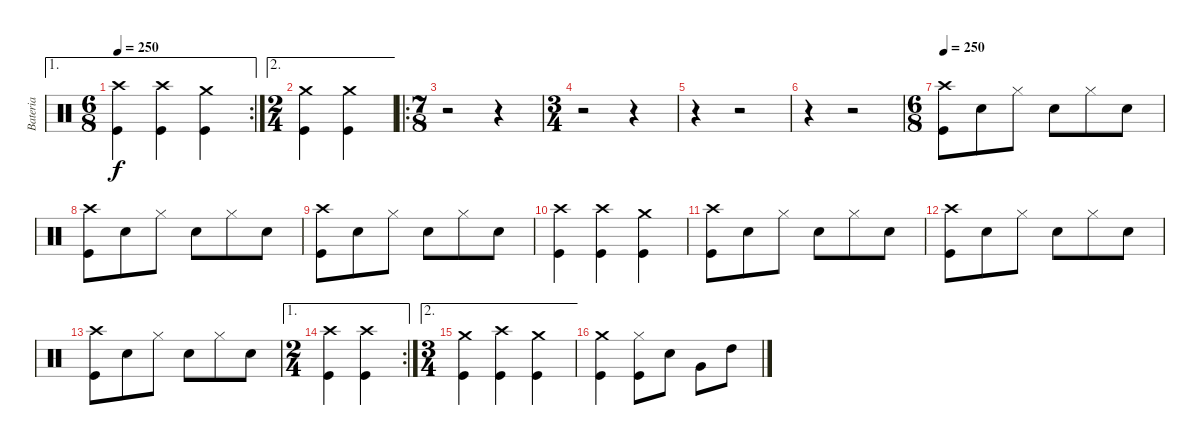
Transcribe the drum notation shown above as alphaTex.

\track ("Bateria" "Bateria") {instrument percussion}
\staff {score}
\articulation defaults
\ae 1
\rc 2
\ts (6 8)
\tempo 250
\clef neutral
\ks c
("Crash high (hit)" "Kick (hit)").4{dy f} ("Crash high (hit)" "Kick (hit)").4 ("Crash medium (hit)" "Kick (hit)").4 |
\ae 2
\ts (2 4)
("Crash medium (hit)" "Kick (hit)").4 ("Crash medium (hit)" "Kick (hit)").4 |
\ro
\ts (7 8)
r.2 r.4 |
\ts (3 4)
r.2 r.4 |
r.4 r.2 |
r.4 r.2 |
\ts (6 8)
\tempo 250
("Crash high (hit)" "Kick (hit)").8 "Snare (hit) 2".8 "Hi-Hat (closed)".8 "Snare (hit) 2".8 "Hi-Hat (closed)".8 "Snare (hit) 2".8 |
("Crash high (hit)" "Kick (hit)").8 "Snare (hit) 2".8 "Hi-Hat (closed)".8 "Snare (hit) 2".8 "Hi-Hat (closed)".8 "Snare (hit) 2".8 |
("Crash high (hit)" "Kick (hit)").8 "Snare (hit) 2".8 "Hi-Hat (closed)".8 "Snare (hit) 2".8 "Hi-Hat (closed)".8 "Snare (hit) 2".8 |
("Crash high (hit)" "Kick (hit)").4 ("Crash high (hit)" "Kick (hit)").4 ("Crash medium (hit)" "Kick (hit)").4 |
("Crash high (hit)" "Kick (hit)").8 "Snare (hit) 2".8 "Hi-Hat (closed)".8 "Snare (hit) 2".8 "Hi-Hat (closed)".8 "Snare (hit) 2".8 |
("Crash high (hit)" "Kick (hit)").8 "Snare (hit) 2".8 "Hi-Hat (closed)".8 "Snare (hit) 2".8 "Hi-Hat (closed)".8 "Snare (hit) 2".8 |
("Crash high (hit)" "Kick (hit)").8 "Snare (hit) 2".8 "Hi-Hat (closed)".8 "Snare (hit) 2".8 "Hi-Hat (closed)".8 "Snare (hit) 2".8 |
\ae 1
\rc 2
\ts (2 4)
("Crash high (hit)" "Kick (hit)").4 ("Crash high (hit)" "Kick (hit)").4 |
\ae 2
\ts (3 4)
("Crash medium (hit)" "Kick (hit)").4 ("Crash high (hit)" "Kick (hit)").4 ("Crash medium (hit)" "Kick (hit)").4 |
("Crash medium (hit)" "Kick (hit)").4 ("Hi-Hat (closed)" "Kick (hit)").8 "Snare (hit) 2".8 "Very Low Tom (hit)".8 "High Tom (hit)".8
